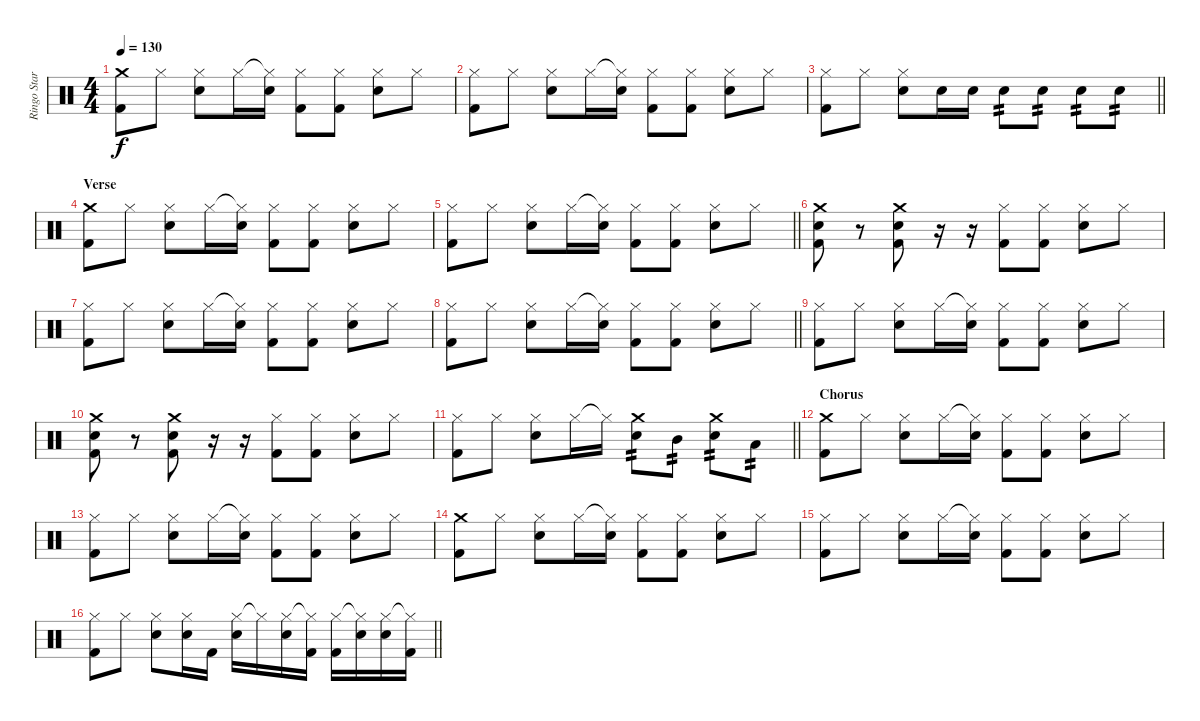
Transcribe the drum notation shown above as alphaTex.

\track ("Ringo Starr" "Ringo Star") {instrument percussion}
\staff {score}
\articulation defaults
\ts (4 4)
\tempo 130
\clef neutral
\ks c
("Crash medium (hit)" "Kick (hit) 2").8{dy f} "Hi-Hat (closed)".8 ("Hi-Hat (closed)" "Snare (hit) 2").8 "Hi-Hat (closed)".16 ("Hi-Hat (closed)"{t} "Snare (hit) 2").16 ("Hi-Hat (closed)" "Kick (hit) 2").8 ("Hi-Hat (closed)" "Kick (hit) 2").8 ("Hi-Hat (closed)" "Snare (hit) 2").8 "Hi-Hat (closed)".8 |
("Hi-Hat (closed)" "Kick (hit) 2").8 "Hi-Hat (closed)".8 ("Hi-Hat (closed)" "Snare (hit) 2").8 "Hi-Hat (closed)".16 ("Hi-Hat (closed)"{t} "Snare (hit) 2").16 ("Hi-Hat (closed)" "Kick (hit) 2").8 ("Hi-Hat (closed)" "Kick (hit) 2").8 ("Hi-Hat (closed)" "Snare (hit) 2").8 "Hi-Hat (closed)".8 |
\barLineRight lightlight
("Hi-Hat (closed)" "Kick (hit) 2").8 "Hi-Hat (closed)".8 ("Hi-Hat (closed)" "Snare (hit) 2").8 "Snare (hit) 2".16 "Snare (hit) 2".16 "Snare (hit) 2".8{tp 2} "Snare (hit) 2".8{tp 2} "Snare (hit) 2".8{tp 2} "Snare (hit) 2".8{tp 2} |
\section ("" "Verse")
("Crash medium (hit)" "Kick (hit) 2").8 "Hi-Hat (closed)".8 ("Hi-Hat (closed)" "Snare (hit) 2").8 "Hi-Hat (closed)".16 ("Hi-Hat (closed)"{t} "Snare (hit) 2").16 ("Hi-Hat (closed)" "Kick (hit) 2").8 ("Hi-Hat (closed)" "Kick (hit) 2").8 ("Hi-Hat (closed)" "Snare (hit) 2").8 "Hi-Hat (closed)".8 |
\barLineRight lightlight
("Hi-Hat (closed)" "Kick (hit) 2").8 "Hi-Hat (closed)".8 ("Hi-Hat (closed)" "Snare (hit) 2").8 "Hi-Hat (closed)".16 ("Hi-Hat (closed)"{t} "Snare (hit) 2").16 ("Hi-Hat (closed)" "Kick (hit) 2").8 ("Hi-Hat (closed)" "Kick (hit) 2").8 ("Hi-Hat (closed)" "Snare (hit) 2").8 "Hi-Hat (closed)".8 |
("Crash medium (hit)" "Snare (hit) 2" "Kick (hit) 2").8 r.8 ("Crash medium (hit)" "Snare (hit) 2" "Kick (hit) 2").8 r.16 r.16 ("Hi-Hat (closed)" "Kick (hit) 2").8 ("Hi-Hat (closed)" "Kick (hit) 2").8 ("Hi-Hat (closed)" "Snare (hit) 2").8 "Hi-Hat (closed)".8 |
("Hi-Hat (closed)" "Kick (hit) 2").8 "Hi-Hat (closed)".8 ("Hi-Hat (closed)" "Snare (hit) 2").8 "Hi-Hat (closed)".16 ("Hi-Hat (closed)"{t} "Snare (hit) 2").16 ("Hi-Hat (closed)" "Kick (hit) 2").8 ("Hi-Hat (closed)" "Kick (hit) 2").8 ("Hi-Hat (closed)" "Snare (hit) 2").8 "Hi-Hat (closed)".8 |
\barLineRight lightlight
("Hi-Hat (closed)" "Kick (hit) 2").8 "Hi-Hat (closed)".8 ("Hi-Hat (closed)" "Snare (hit) 2").8 "Hi-Hat (closed)".16 ("Hi-Hat (closed)"{t} "Snare (hit) 2").16 ("Hi-Hat (closed)" "Kick (hit) 2").8 ("Hi-Hat (closed)" "Kick (hit) 2").8 ("Hi-Hat (closed)" "Snare (hit) 2").8 "Hi-Hat (closed)".8 |
("Hi-Hat (closed)" "Kick (hit) 2").8 "Hi-Hat (closed)".8 ("Hi-Hat (closed)" "Snare (hit) 2").8 "Hi-Hat (closed)".16 ("Hi-Hat (closed)"{t} "Snare (hit) 2").16 ("Hi-Hat (closed)" "Kick (hit) 2").8 ("Hi-Hat (closed)" "Kick (hit) 2").8 ("Hi-Hat (closed)" "Snare (hit) 2").8 "Hi-Hat (closed)".8 |
("Crash medium (hit)" "Snare (hit) 2" "Kick (hit) 2").8 r.8 ("Crash medium (hit)" "Snare (hit) 2" "Kick (hit) 2").8 r.16 r.16 ("Hi-Hat (closed)" "Kick (hit) 2").8 ("Hi-Hat (closed)" "Kick (hit) 2").8 ("Hi-Hat (closed)" "Snare (hit) 2").8 "Hi-Hat (closed)".8 |
\barLineRight lightlight
("Hi-Hat (closed)" "Kick (hit) 2").8 "Hi-Hat (closed)".8 ("Hi-Hat (closed)" "Snare (hit) 2").8 "Hi-Hat (closed)".16 "Hi-Hat (closed)"{t}.16 ("Crash medium (hit)" "Snare (hit) 2").8{tp 2} "Mid Tom (hit)".8{tp 2} ("Crash medium (hit)" "Snare (hit) 2").8{tp 2} "Low Tom (hit)".8{tp 2} |
\section ("" "Chorus")
("Crash medium (hit)" "Kick (hit) 2").8 "Hi-Hat (closed)".8 ("Hi-Hat (closed)" "Snare (hit) 2").8 "Hi-Hat (closed)".16 ("Hi-Hat (closed)"{t} "Snare (hit) 2").16 ("Hi-Hat (closed)" "Kick (hit) 2").8 ("Hi-Hat (closed)" "Kick (hit) 2").8 ("Hi-Hat (closed)" "Snare (hit) 2").8 "Hi-Hat (closed)".8 |
("Hi-Hat (closed)" "Kick (hit) 2").8 "Hi-Hat (closed)".8 ("Hi-Hat (closed)" "Snare (hit) 2").8 "Hi-Hat (closed)".16 ("Hi-Hat (closed)"{t} "Snare (hit) 2").16 ("Hi-Hat (closed)" "Kick (hit) 2").8 ("Hi-Hat (closed)" "Kick (hit) 2").8 ("Hi-Hat (closed)" "Snare (hit) 2").8 "Hi-Hat (closed)".8 |
("Crash medium (hit)" "Kick (hit) 2").8 "Hi-Hat (closed)".8 ("Hi-Hat (closed)" "Snare (hit) 2").8 "Hi-Hat (closed)".16 ("Hi-Hat (closed)"{t} "Snare (hit) 2").16 ("Hi-Hat (closed)" "Kick (hit) 2").8 ("Hi-Hat (closed)" "Kick (hit) 2").8 ("Hi-Hat (closed)" "Snare (hit) 2").8 "Hi-Hat (closed)".8 |
("Hi-Hat (closed)" "Kick (hit) 2").8 "Hi-Hat (closed)".8 ("Hi-Hat (closed)" "Snare (hit) 2").8 "Hi-Hat (closed)".16 ("Hi-Hat (closed)"{t} "Snare (hit) 2").16 ("Hi-Hat (closed)" "Kick (hit) 2").8 ("Hi-Hat (closed)" "Kick (hit) 2").8 ("Hi-Hat (closed)" "Snare (hit) 2").8 "Hi-Hat (closed)".8 |
\barLineRight lightlight
("Hi-Hat (closed)" "Kick (hit) 2").8 "Hi-Hat (closed)".8 ("Hi-Hat (closed)" "Snare (hit) 2").8 ("Hi-Hat (closed)" "Snare (hit) 2").16 "Kick (hit) 2".16 ("Hi-Hat (closed)" "Snare (hit) 2").16 "Hi-Hat (closed)"{t}.16 ("Hi-Hat (closed)" "Snare (hit) 2").16 ("Hi-Hat (closed)"{t} "Kick (hit) 2").16 ("Hi-Hat (closed)" "Kick (hit) 2").16 ("Hi-Hat (closed)"{t} "Snare (hit) 2").16 ("Hi-Hat (closed)" "Snare (hit) 2").16 ("Hi-Hat (closed)"{t} "Kick (hit) 2").16
